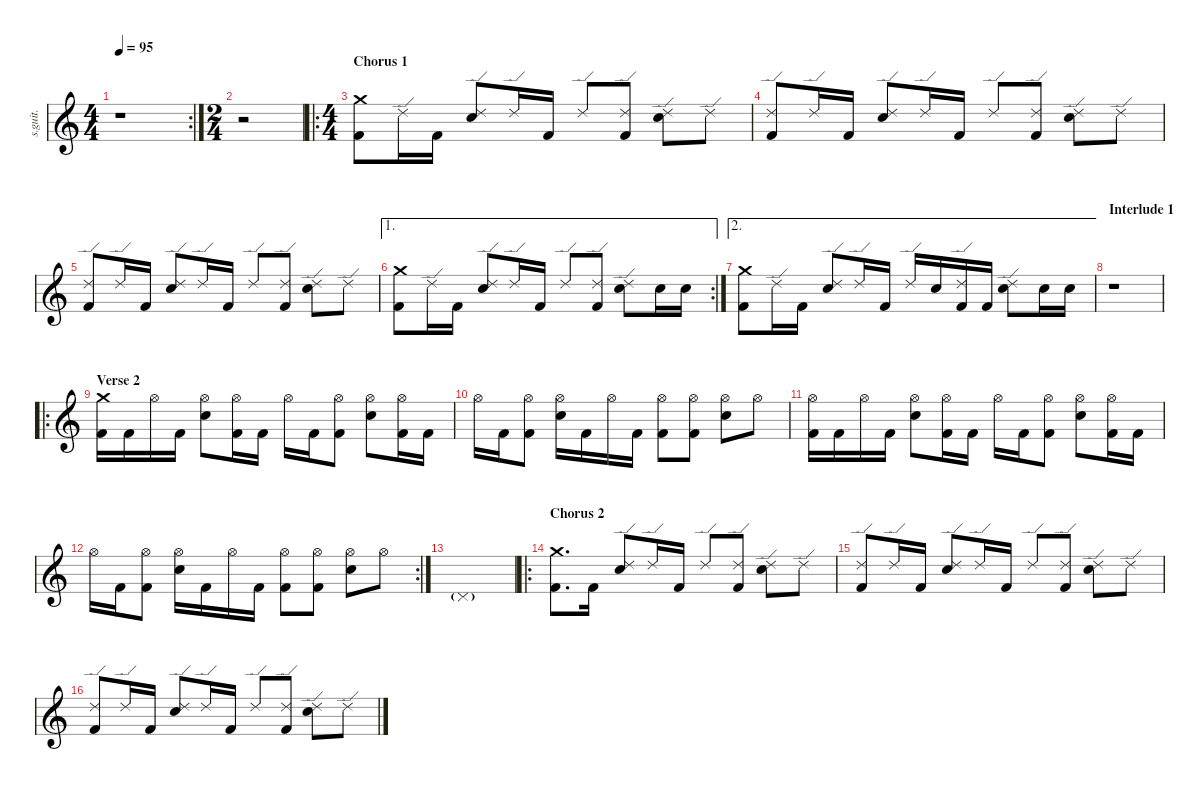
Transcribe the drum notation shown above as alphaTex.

\defaultSystemsLayout 4
\hideDynamics
\bracketExtendMode nobrackets
\track ("Josh Freese" "s.guit.") {instrument percussion}
\staff {score}
\articulation defaults
\rc 2
\ts (4 4)
\tempo 95
\clef g2
\ks c
r.1{dy f} |
\ts (2 4)
\beaming (8 2 2 2 2)
r.2 |
\ro
\ts (4 4)
\beaming (8 2 2 2 2)
\section ("" "Chorus 1")
("Crash medium (hit)" "Kick (hit) 2").8{lyrics (0 "") lyrics (1 "") lyrics (2 "") lyrics (3 "") lyrics (4 "")} "Ride (edge) 2".16{lyrics (0 "") lyrics (1 "") lyrics (2 "") lyrics (3 "") lyrics (4 "")} "Kick (hit) 2".16{lyrics (0 "") lyrics (1 "") lyrics (2 "") lyrics (3 "") lyrics (4 "")} ("Ride (edge) 2" "Snare (hit) 2").8{lyrics (0 "") lyrics (1 "") lyrics (2 "") lyrics (3 "") lyrics (4 "")} "Ride (edge) 2".16{lyrics (0 "") lyrics (1 "") lyrics (2 "") lyrics (3 "") lyrics (4 "")} "Kick (hit) 2".16{lyrics (0 "") lyrics (1 "") lyrics (2 "") lyrics (3 "") lyrics (4 "")} "Ride (edge) 2".8{lyrics (0 "") lyrics (1 "") lyrics (2 "") lyrics (3 "") lyrics (4 "")} ("Ride (edge) 2" "Kick (hit) 2").8{lyrics (0 "") lyrics (1 "") lyrics (2 "") lyrics (3 "") lyrics (4 "")} ("Ride (edge) 2" "Snare (hit) 2").8{lyrics (0 "") lyrics (1 "") lyrics (2 "") lyrics (3 "") lyrics (4 "")} "Ride (edge) 2".8{lyrics (0 "") lyrics (1 "") lyrics (2 "") lyrics (3 "") lyrics (4 "")} |
("Ride (edge) 2" "Kick (hit) 2").8{lyrics (0 "") lyrics (1 "") lyrics (2 "") lyrics (3 "") lyrics (4 "")} "Ride (edge) 2".16{lyrics (0 "") lyrics (1 "") lyrics (2 "") lyrics (3 "") lyrics (4 "")} "Kick (hit) 2".16{lyrics (0 "") lyrics (1 "") lyrics (2 "") lyrics (3 "") lyrics (4 "")} ("Ride (edge) 2" "Snare (hit) 2").8{lyrics (0 "") lyrics (1 "") lyrics (2 "") lyrics (3 "") lyrics (4 "")} "Ride (edge) 2".16{lyrics (0 "") lyrics (1 "") lyrics (2 "") lyrics (3 "") lyrics (4 "")} "Kick (hit) 2".16{lyrics (0 "") lyrics (1 "") lyrics (2 "") lyrics (3 "") lyrics (4 "")} "Ride (edge) 2".8{lyrics (0 "") lyrics (1 "") lyrics (2 "") lyrics (3 "") lyrics (4 "")} ("Ride (edge) 2" "Kick (hit) 2").8{lyrics (0 "") lyrics (1 "") lyrics (2 "") lyrics (3 "") lyrics (4 "")} ("Ride (edge) 2" "Snare (hit) 2").8{lyrics (0 "") lyrics (1 "") lyrics (2 "") lyrics (3 "") lyrics (4 "")} "Ride (edge) 2".8{lyrics (0 "") lyrics (1 "") lyrics (2 "") lyrics (3 "") lyrics (4 "")} |
("Ride (edge) 2" "Kick (hit) 2").8{lyrics (0 "") lyrics (1 "") lyrics (2 "") lyrics (3 "") lyrics (4 "")} "Ride (edge) 2".16{lyrics (0 "") lyrics (1 "") lyrics (2 "") lyrics (3 "") lyrics (4 "")} "Kick (hit) 2".16{lyrics (0 "") lyrics (1 "") lyrics (2 "") lyrics (3 "") lyrics (4 "")} ("Ride (edge) 2" "Snare (hit) 2").8{lyrics (0 "") lyrics (1 "") lyrics (2 "") lyrics (3 "") lyrics (4 "")} "Ride (edge) 2".16{lyrics (0 "") lyrics (1 "") lyrics (2 "") lyrics (3 "") lyrics (4 "")} "Kick (hit) 2".16{lyrics (0 "") lyrics (1 "") lyrics (2 "") lyrics (3 "") lyrics (4 "")} "Ride (edge) 2".8{lyrics (0 "") lyrics (1 "") lyrics (2 "") lyrics (3 "") lyrics (4 "")} ("Ride (edge) 2" "Kick (hit) 2").8{lyrics (0 "") lyrics (1 "") lyrics (2 "") lyrics (3 "") lyrics (4 "")} ("Ride (edge) 2" "Snare (hit) 2").8{lyrics (0 "") lyrics (1 "") lyrics (2 "") lyrics (3 "") lyrics (4 "")} "Ride (edge) 2".8{lyrics (0 "") lyrics (1 "") lyrics (2 "") lyrics (3 "") lyrics (4 "")} |
\ae 1
\rc 2
("Crash medium (hit)" "Kick (hit) 2").8{lyrics (0 "") lyrics (1 "") lyrics (2 "") lyrics (3 "") lyrics (4 "")} "Ride (edge) 2".16{lyrics (0 "") lyrics (1 "") lyrics (2 "") lyrics (3 "") lyrics (4 "")} "Kick (hit) 2".16{lyrics (0 "") lyrics (1 "") lyrics (2 "") lyrics (3 "") lyrics (4 "")} ("Ride (edge) 2" "Snare (hit) 2").8{lyrics (0 "") lyrics (1 "") lyrics (2 "") lyrics (3 "") lyrics (4 "")} "Ride (edge) 2".16{lyrics (0 "") lyrics (1 "") lyrics (2 "") lyrics (3 "") lyrics (4 "")} "Kick (hit) 2".16{lyrics (0 "") lyrics (1 "") lyrics (2 "") lyrics (3 "") lyrics (4 "")} "Ride (edge) 2".8{lyrics (0 "") lyrics (1 "") lyrics (2 "") lyrics (3 "") lyrics (4 "")} ("Ride (edge) 2" "Kick (hit) 2").8{lyrics (0 "") lyrics (1 "") lyrics (2 "") lyrics (3 "") lyrics (4 "")} ("Ride (edge) 2" "Snare (hit) 2").8{lyrics (0 "") lyrics (1 "") lyrics (2 "") lyrics (3 "") lyrics (4 "")} "Snare (hit) 2".16{lyrics (0 "") lyrics (1 "") lyrics (2 "") lyrics (3 "") lyrics (4 "")} "Snare (hit) 2".16{lyrics (0 "") lyrics (1 "") lyrics (2 "") lyrics (3 "") lyrics (4 "")} |
\ae 2
("Crash medium (hit)" "Kick (hit) 2").8{lyrics (0 "") lyrics (1 "") lyrics (2 "") lyrics (3 "") lyrics (4 "")} "Ride (edge) 2".16{lyrics (0 "") lyrics (1 "") lyrics (2 "") lyrics (3 "") lyrics (4 "")} "Kick (hit) 2".16{lyrics (0 "") lyrics (1 "") lyrics (2 "") lyrics (3 "") lyrics (4 "")} ("Ride (edge) 2" "Snare (hit) 2").8{lyrics (0 "") lyrics (1 "") lyrics (2 "") lyrics (3 "") lyrics (4 "")} "Ride (edge) 2".16{lyrics (0 "") lyrics (1 "") lyrics (2 "") lyrics (3 "") lyrics (4 "")} "Kick (hit) 2".16{lyrics (0 "") lyrics (1 "") lyrics (2 "") lyrics (3 "") lyrics (4 "")} "Ride (edge) 2".16{lyrics (0 "") lyrics (1 "") lyrics (2 "") lyrics (3 "") lyrics (4 "")} "Snare (hit) 2".16{lyrics (0 "") lyrics (1 "") lyrics (2 "") lyrics (3 "") lyrics (4 "")} ("Ride (edge) 2" "Kick (hit) 2").16{lyrics (0 "") lyrics (1 "") lyrics (2 "") lyrics (3 "") lyrics (4 "")} "Kick (hit) 2".16{lyrics (0 "") lyrics (1 "") lyrics (2 "") lyrics (3 "") lyrics (4 "")} ("Ride (edge) 2" "Snare (hit) 2").8{lyrics (0 "") lyrics (1 "") lyrics (2 "") lyrics (3 "") lyrics (4 "")} "Snare (hit) 2".16{lyrics (0 "") lyrics (1 "") lyrics (2 "") lyrics (3 "") lyrics (4 "")} "Snare (hit) 2".16{lyrics (0 "") lyrics (1 "") lyrics (2 "") lyrics (3 "") lyrics (4 "")} |
\section ("" "Interlude 1")
r.1 |
\ro
\section ("" "Verse 2")
("Crash medium (hit)" "Kick (hit) 2").16{lyrics (0 "") lyrics (1 "") lyrics (2 "") lyrics (3 "") lyrics (4 "")} "Kick (hit) 2".16{lyrics (0 "") lyrics (1 "") lyrics (2 "") lyrics (3 "") lyrics (4 "")} "Hi-Hat (open)".16{lyrics (0 "") lyrics (1 "") lyrics (2 "") lyrics (3 "") lyrics (4 "")} "Kick (hit) 2".16{lyrics (0 "") lyrics (1 "") lyrics (2 "") lyrics (3 "") lyrics (4 "")} ("Hi-Hat (open)" "Snare (hit) 2").8{lyrics (0 "") lyrics (1 "") lyrics (2 "") lyrics (3 "") lyrics (4 "")} ("Hi-Hat (open)" "Kick (hit) 2").16{lyrics (0 "") lyrics (1 "") lyrics (2 "") lyrics (3 "") lyrics (4 "")} "Kick (hit) 2".16{lyrics (0 "") lyrics (1 "") lyrics (2 "") lyrics (3 "") lyrics (4 "")} "Hi-Hat (open)".16{lyrics (0 "") lyrics (1 "") lyrics (2 "") lyrics (3 "") lyrics (4 "")} "Kick (hit) 2".16{lyrics (0 "") lyrics (1 "") lyrics (2 "") lyrics (3 "") lyrics (4 "")} ("Hi-Hat (open)" "Kick (hit) 2").8{lyrics (0 "") lyrics (1 "") lyrics (2 "") lyrics (3 "") lyrics (4 "")} ("Hi-Hat (open)" "Snare (hit) 2").8{lyrics (0 "") lyrics (1 "") lyrics (2 "") lyrics (3 "") lyrics (4 "")} ("Hi-Hat (open)" "Kick (hit) 2").16{lyrics (0 "") lyrics (1 "") lyrics (2 "") lyrics (3 "") lyrics (4 "")} "Kick (hit) 2".16{lyrics (0 "") lyrics (1 "") lyrics (2 "") lyrics (3 "") lyrics (4 "")} |
"Hi-Hat (open)".16{lyrics (0 "") lyrics (1 "") lyrics (2 "") lyrics (3 "") lyrics (4 "")} "Kick (hit) 2".16{lyrics (0 "") lyrics (1 "") lyrics (2 "") lyrics (3 "") lyrics (4 "")} ("Hi-Hat (open)" "Kick (hit) 2").8{lyrics (0 "") lyrics (1 "") lyrics (2 "") lyrics (3 "") lyrics (4 "")} ("Hi-Hat (open)" "Snare (hit) 2").16{lyrics (0 "") lyrics (1 "") lyrics (2 "") lyrics (3 "") lyrics (4 "")} "Kick (hit) 2".16{lyrics (0 "") lyrics (1 "") lyrics (2 "") lyrics (3 "") lyrics (4 "")} "Hi-Hat (open)".16{lyrics (0 "") lyrics (1 "") lyrics (2 "") lyrics (3 "") lyrics (4 "")} "Kick (hit) 2".16{lyrics (0 "") lyrics (1 "") lyrics (2 "") lyrics (3 "") lyrics (4 "")} ("Hi-Hat (open)" "Kick (hit) 2").8{lyrics (0 "") lyrics (1 "") lyrics (2 "") lyrics (3 "") lyrics (4 "")} ("Hi-Hat (open)" "Kick (hit) 2").8{lyrics (0 "") lyrics (1 "") lyrics (2 "") lyrics (3 "") lyrics (4 "")} ("Hi-Hat (open)" "Snare (hit) 2").8{lyrics (0 "") lyrics (1 "") lyrics (2 "") lyrics (3 "") lyrics (4 "")} "Hi-Hat (open)".8{lyrics (0 "") lyrics (1 "") lyrics (2 "") lyrics (3 "") lyrics (4 "")} |
("Hi-Hat (open)" "Kick (hit) 2").16{lyrics (0 "") lyrics (1 "") lyrics (2 "") lyrics (3 "") lyrics (4 "")} "Kick (hit) 2".16{lyrics (0 "") lyrics (1 "") lyrics (2 "") lyrics (3 "") lyrics (4 "")} "Hi-Hat (open)".16{lyrics (0 "") lyrics (1 "") lyrics (2 "") lyrics (3 "") lyrics (4 "")} "Kick (hit) 2".16{lyrics (0 "") lyrics (1 "") lyrics (2 "") lyrics (3 "") lyrics (4 "")} ("Hi-Hat (open)" "Snare (hit) 2").8{lyrics (0 "") lyrics (1 "") lyrics (2 "") lyrics (3 "") lyrics (4 "")} ("Hi-Hat (open)" "Kick (hit) 2").16{lyrics (0 "") lyrics (1 "") lyrics (2 "") lyrics (3 "") lyrics (4 "")} "Kick (hit) 2".16{lyrics (0 "") lyrics (1 "") lyrics (2 "") lyrics (3 "") lyrics (4 "")} "Hi-Hat (open)".16{lyrics (0 "") lyrics (1 "") lyrics (2 "") lyrics (3 "") lyrics (4 "")} "Kick (hit) 2".16{lyrics (0 "") lyrics (1 "") lyrics (2 "") lyrics (3 "") lyrics (4 "")} ("Hi-Hat (open)" "Kick (hit) 2").8{lyrics (0 "") lyrics (1 "") lyrics (2 "") lyrics (3 "") lyrics (4 "")} ("Hi-Hat (open)" "Snare (hit) 2").8{lyrics (0 "") lyrics (1 "") lyrics (2 "") lyrics (3 "") lyrics (4 "")} ("Hi-Hat (open)" "Kick (hit) 2").16{lyrics (0 "") lyrics (1 "") lyrics (2 "") lyrics (3 "") lyrics (4 "")} "Kick (hit) 2".16{lyrics (0 "") lyrics (1 "") lyrics (2 "") lyrics (3 "") lyrics (4 "")} |
\rc 2 "Hi-Hat (open)".16{lyrics (0 "") lyrics (1 "") lyrics (2 "") lyrics (3 "") lyrics (4 "")} "Kick (hit) 2".16{lyrics (0 "") lyrics (1 "") lyrics (2 "") lyrics (3 "") lyrics (4 "")}
("Hi-Hat (open)" "Kick (hit) 2").8{lyrics (0 "") lyrics (1 "") lyrics (2 "") lyrics (3 "") lyrics (4 "")} ("Hi-Hat (open)" "Snare (hit) 2").16{lyrics (0 "") lyrics (1 "") lyrics (2 "") lyrics (3 "") lyrics (4 "")} "Kick (hit) 2".16{lyrics (0 "") lyrics (1 "") lyrics (2 "") lyrics (3 "") lyrics (4 "")} "Hi-Hat (open)".16{lyrics (0 "") lyrics (1 "") lyrics (2 "") lyrics (3 "") lyrics (4 "")} "Kick (hit) 2".16{lyrics (0 "") lyrics (1 "") lyrics (2 "") lyrics (3 "") lyrics (4 "")} ("Hi-Hat (open)" "Kick (hit) 2").8{lyrics (0 "") lyrics (1 "") lyrics (2 "") lyrics (3 "") lyrics (4 "")} ("Hi-Hat (open)" "Kick (hit) 2").8{lyrics (0 "") lyrics (1 "") lyrics (2 "") lyrics (3 "") lyrics (4 "")} ("Hi-Hat (open)" "Snare (hit) 2").8{lyrics (0 "") lyrics (1 "") lyrics (2 "") lyrics (3 "") lyrics (4 "")} "Hi-Hat (open)".8{lyrics (0 "") lyrics (1 "") lyrics (2 "") lyrics (3 "") lyrics (4 "")} |
"Pedal Hi-Hat (hit)"{g}.1{lyrics (0 "") lyrics (1 "") lyrics (2 "") lyrics (3 "") lyrics (4 "")} |
\ro
\section ("" "Chorus 2")
("Crash medium (hit)" "Kick (hit) 2").8{d lyrics (0 "") lyrics (1 "") lyrics (2 "") lyrics (3 "") lyrics (4 "")} "Kick (hit) 2".16{lyrics (0 "") lyrics (1 "") lyrics (2 "") lyrics (3 "") lyrics (4 "")} ("Ride (edge) 2" "Snare (hit) 2").8{lyrics (0 "") lyrics (1 "") lyrics (2 "") lyrics (3 "") lyrics (4 "")} "Ride (edge) 2".16{lyrics (0 "") lyrics (1 "") lyrics (2 "") lyrics (3 "") lyrics (4 "")} "Kick (hit) 2".16{lyrics (0 "") lyrics (1 "") lyrics (2 "") lyrics (3 "") lyrics (4 "")} "Ride (edge) 2".8{lyrics (0 "") lyrics (1 "") lyrics (2 "") lyrics (3 "") lyrics (4 "")} ("Ride (edge) 2" "Kick (hit) 2").8{lyrics (0 "") lyrics (1 "") lyrics (2 "") lyrics (3 "") lyrics (4 "")} ("Ride (edge) 2" "Snare (hit) 2").8{lyrics (0 "") lyrics (1 "") lyrics (2 "") lyrics (3 "") lyrics (4 "")} "Ride (edge) 2".8{lyrics (0 "") lyrics (1 "") lyrics (2 "") lyrics (3 "") lyrics (4 "")} |
("Ride (edge) 2" "Kick (hit) 2").8{lyrics (0 "") lyrics (1 "") lyrics (2 "") lyrics (3 "") lyrics (4 "")} "Ride (edge) 2".16{lyrics (0 "") lyrics (1 "") lyrics (2 "") lyrics (3 "") lyrics (4 "")} "Kick (hit) 2".16{lyrics (0 "") lyrics (1 "") lyrics (2 "") lyrics (3 "") lyrics (4 "")} ("Ride (edge) 2" "Snare (hit) 2").8{lyrics (0 "") lyrics (1 "") lyrics (2 "") lyrics (3 "") lyrics (4 "")} "Ride (edge) 2".16{lyrics (0 "") lyrics (1 "") lyrics (2 "") lyrics (3 "") lyrics (4 "")} "Kick (hit) 2".16{lyrics (0 "") lyrics (1 "") lyrics (2 "") lyrics (3 "") lyrics (4 "")} "Ride (edge) 2".8{lyrics (0 "") lyrics (1 "") lyrics (2 "") lyrics (3 "") lyrics (4 "")} ("Ride (edge) 2" "Kick (hit) 2").8{lyrics (0 "") lyrics (1 "") lyrics (2 "") lyrics (3 "") lyrics (4 "")} ("Ride (edge) 2" "Snare (hit) 2").8{lyrics (0 "") lyrics (1 "") lyrics (2 "") lyrics (3 "") lyrics (4 "")} "Ride (edge) 2".8{lyrics (0 "") lyrics (1 "") lyrics (2 "") lyrics (3 "") lyrics (4 "")} |
("Ride (edge) 2" "Kick (hit) 2").8{lyrics (0 "") lyrics (1 "") lyrics (2 "") lyrics (3 "") lyrics (4 "")} "Ride (edge) 2".16{lyrics (0 "") lyrics (1 "") lyrics (2 "") lyrics (3 "") lyrics (4 "")} "Kick (hit) 2".16{lyrics (0 "") lyrics (1 "") lyrics (2 "") lyrics (3 "") lyrics (4 "")} ("Ride (edge) 2" "Snare (hit) 2").8{lyrics (0 "") lyrics (1 "") lyrics (2 "") lyrics (3 "") lyrics (4 "")} "Ride (edge) 2".16{lyrics (0 "") lyrics (1 "") lyrics (2 "") lyrics (3 "") lyrics (4 "")} "Kick (hit) 2".16{lyrics (0 "") lyrics (1 "") lyrics (2 "") lyrics (3 "") lyrics (4 "")} "Ride (edge) 2".8{lyrics (0 "") lyrics (1 "") lyrics (2 "") lyrics (3 "") lyrics (4 "")} ("Ride (edge) 2" "Kick (hit) 2").8{lyrics (0 "") lyrics (1 "") lyrics (2 "") lyrics (3 "") lyrics (4 "")} ("Ride (edge) 2" "Snare (hit) 2").8{lyrics (0 "") lyrics (1 "") lyrics (2 "") lyrics (3 "") lyrics (4 "")} "Ride (edge) 2".8{lyrics (0 "") lyrics (1 "") lyrics (2 "") lyrics (3 "") lyrics (4 "")}
